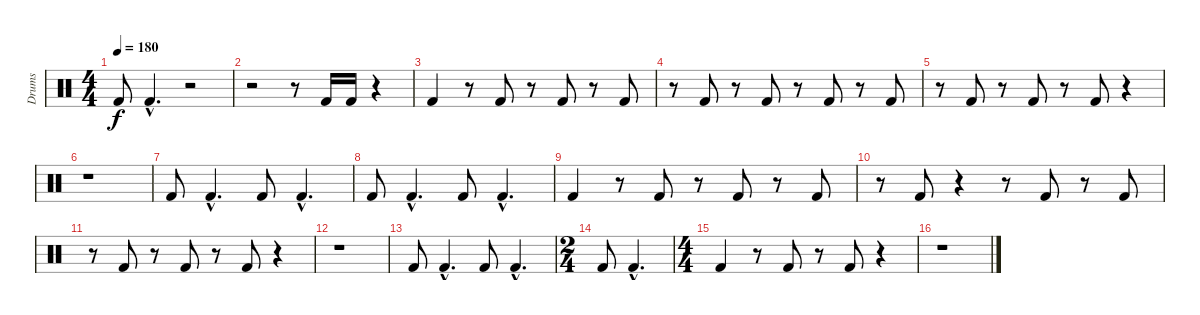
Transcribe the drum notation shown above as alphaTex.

\track ("Drums" "Drums") {instrument percussion}
\staff {score}
\articulation defaults
\ts (4 4)
\tempo 180
\clef neutral
\ks c "Kick (hit) 2".8{dy f} "Kick (hit) 2"{hac}.4{d}
r.2 |
r.2 r.8 "Kick (hit) 2".16 "Kick (hit) 2".16 r.4 |
"Kick (hit) 2".4 r.8 "Kick (hit) 2".8 r.8 "Kick (hit) 2".8 r.8 "Kick (hit) 2".8 |
r.8 "Kick (hit) 2".8 r.8 "Kick (hit) 2".8 r.8 "Kick (hit) 2".8 r.8 "Kick (hit) 2".8 |
r.8 "Kick (hit) 2".8 r.8 "Kick (hit) 2".8 r.8 "Kick (hit) 2".8 r.4 |
r.1 |
"Kick (hit) 2".8 "Kick (hit) 2"{hac}.4{d} "Kick (hit) 2".8 "Kick (hit) 2"{hac}.4{d} |
"Kick (hit) 2".8 "Kick (hit) 2"{hac}.4{d} "Kick (hit) 2".8 "Kick (hit) 2"{hac}.4{d} |
"Kick (hit) 2".4 r.8 "Kick (hit) 2".8 r.8 "Kick (hit) 2".8 r.8 "Kick (hit) 2".8 |
r.8 "Kick (hit) 2".8 r.4 r.8 "Kick (hit) 2".8 r.8 "Kick (hit) 2".8 |
r.8 "Kick (hit) 2".8 r.8 "Kick (hit) 2".8 r.8 "Kick (hit) 2".8 r.4 |
r.1 |
"Kick (hit) 2".8 "Kick (hit) 2"{hac}.4{d} "Kick (hit) 2".8 "Kick (hit) 2"{hac}.4{d} |
\ts (2 4)
"Kick (hit) 2".8 "Kick (hit) 2"{hac}.4{d} |
\ts (4 4)
"Kick (hit) 2".4 r.8 "Kick (hit) 2".8 r.8 "Kick (hit) 2".8 r.4 |
r.1
